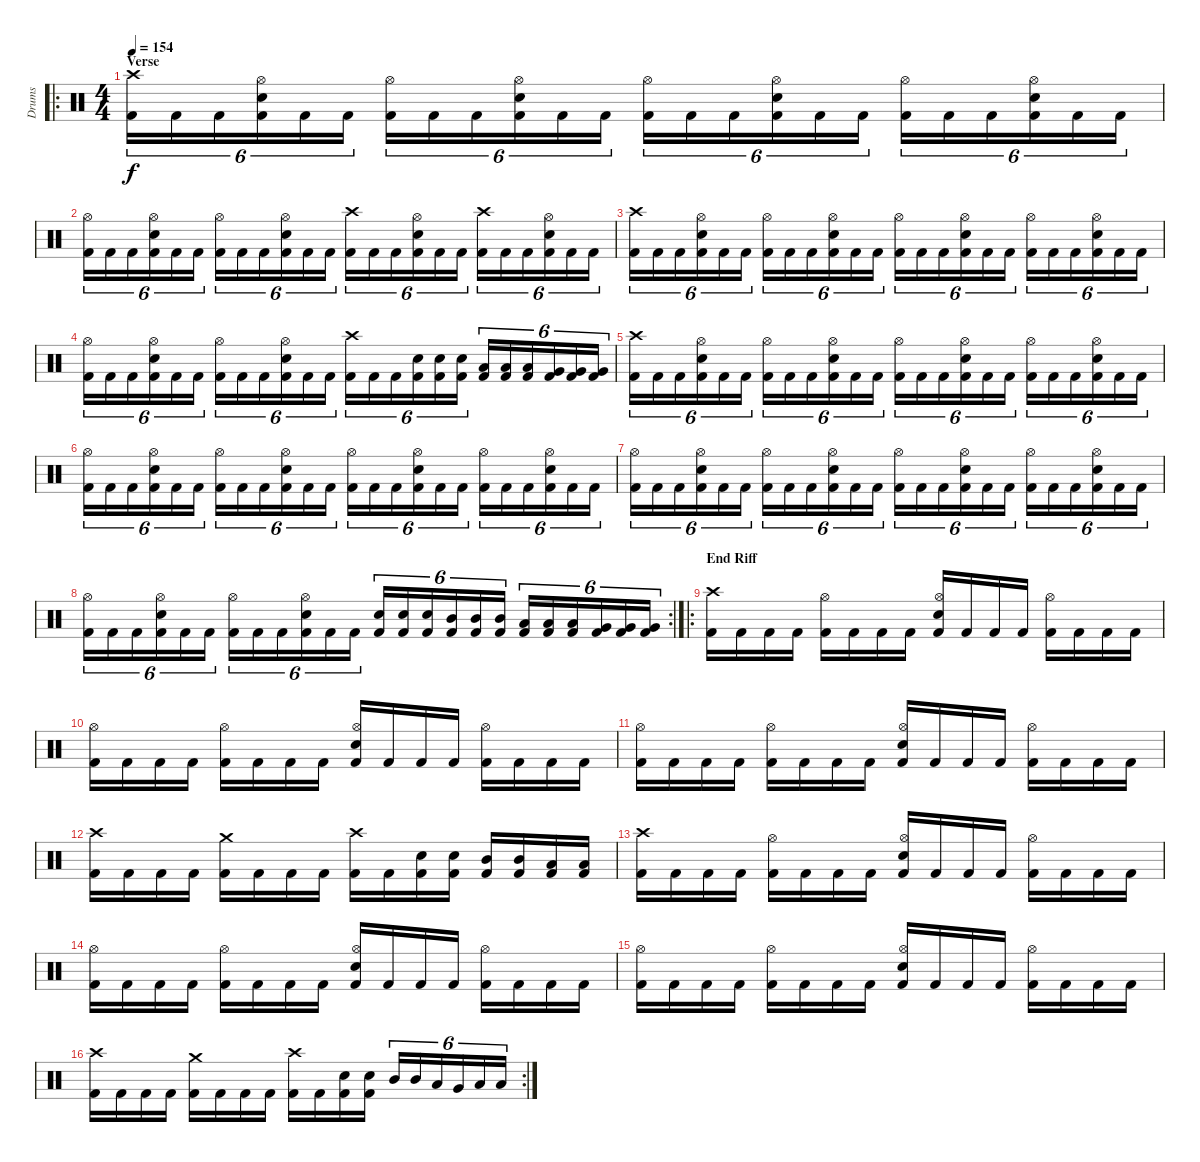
\track ("Drums" "Drums") {instrument percussion}
\staff {score}
\articulation defaults
\ro
\ts (4 4)
\section ("" "Verse")
\tempo 154
\clef neutral
\ks c
("Crash high (hit)" "Kick (hit) 2").16{tu (6 4) dy f} "Kick (hit) 2".16{tu (6 4)} "Kick (hit) 2".16{tu (6 4)} ("Hi-Hat (open)" "Electric Snare (hit)" "Kick (hit) 2").16{tu (6 4)} "Kick (hit) 2".16{tu (6 4)} "Kick (hit) 2".16{tu (6 4)} ("Hi-Hat (open)" "Kick (hit) 2").16{tu (6 4)} "Kick (hit) 2".16{tu (6 4)} "Kick (hit) 2".16{tu (6 4)} ("Hi-Hat (open)" "Electric Snare (hit)" "Kick (hit) 2").16{tu (6 4)} "Kick (hit) 2".16{tu (6 4)} "Kick (hit) 2".16{tu (6 4)} ("Hi-Hat (open)" "Kick (hit) 2").16{tu (6 4)} "Kick (hit) 2".16{tu (6 4)} "Kick (hit) 2".16{tu (6 4)} ("Hi-Hat (open)" "Electric Snare (hit)" "Kick (hit) 2").16{tu (6 4)} "Kick (hit) 2".16{tu (6 4)} "Kick (hit) 2".16{tu (6 4)} ("Hi-Hat (open)" "Kick (hit) 2").16{tu (6 4)} "Kick (hit) 2".16{tu (6 4)} "Kick (hit) 2".16{tu (6 4)} ("Hi-Hat (open)" "Electric Snare (hit)" "Kick (hit) 2").16{tu (6 4)} "Kick (hit) 2".16{tu (6 4)} "Kick (hit) 2".16{tu (6 4)} |
("Hi-Hat (open)" "Kick (hit) 2").16{tu (6 4)} "Kick (hit) 2".16{tu (6 4)} "Kick (hit) 2".16{tu (6 4)} ("Hi-Hat (open)" "Electric Snare (hit)" "Kick (hit) 2").16{tu (6 4)} "Kick (hit) 2".16{tu (6 4)} "Kick (hit) 2".16{tu (6 4)} ("Hi-Hat (open)" "Kick (hit) 2").16{tu (6 4)} "Kick (hit) 2".16{tu (6 4)} "Kick (hit) 2".16{tu (6 4)} ("Hi-Hat (open)" "Electric Snare (hit)" "Kick (hit) 2").16{tu (6 4)} "Kick (hit) 2".16{tu (6 4)} "Kick (hit) 2".16{tu (6 4)} ("Crash high (hit)" "Kick (hit) 2").16{tu (6 4)} "Kick (hit) 2".16{tu (6 4)} "Kick (hit) 2".16{tu (6 4)} ("Hi-Hat (open)" "Electric Snare (hit)" "Kick (hit) 2").16{tu (6 4)} "Kick (hit) 2".16{tu (6 4)} "Kick (hit) 2".16{tu (6 4)} ("Crash high (hit)" "Kick (hit) 2").16{tu (6 4)} "Kick (hit) 2".16{tu (6 4)} "Kick (hit) 2".16{tu (6 4)} ("Hi-Hat (open)" "Electric Snare (hit)" "Kick (hit) 2").16{tu (6 4)} "Kick (hit) 2".16{tu (6 4)} "Kick (hit) 2".16{tu (6 4)} |
("Crash high (hit)" "Kick (hit) 2").16{tu (6 4)} "Kick (hit) 2".16{tu (6 4)} "Kick (hit) 2".16{tu (6 4)} ("Hi-Hat (open)" "Electric Snare (hit)" "Kick (hit) 2").16{tu (6 4)} "Kick (hit) 2".16{tu (6 4)} "Kick (hit) 2".16{tu (6 4)} ("Hi-Hat (open)" "Kick (hit) 2").16{tu (6 4)} "Kick (hit) 2".16{tu (6 4)} "Kick (hit) 2".16{tu (6 4)} ("Hi-Hat (open)" "Electric Snare (hit)" "Kick (hit) 2").16{tu (6 4)} "Kick (hit) 2".16{tu (6 4)} "Kick (hit) 2".16{tu (6 4)} ("Hi-Hat (open)" "Kick (hit) 2").16{tu (6 4)} "Kick (hit) 2".16{tu (6 4)} "Kick (hit) 2".16{tu (6 4)} ("Hi-Hat (open)" "Electric Snare (hit)" "Kick (hit) 2").16{tu (6 4)} "Kick (hit) 2".16{tu (6 4)} "Kick (hit) 2".16{tu (6 4)} ("Hi-Hat (open)" "Kick (hit) 2").16{tu (6 4)} "Kick (hit) 2".16{tu (6 4)} "Kick (hit) 2".16{tu (6 4)} ("Hi-Hat (open)" "Electric Snare (hit)" "Kick (hit) 2").16{tu (6 4)} "Kick (hit) 2".16{tu (6 4)} "Kick (hit) 2".16{tu (6 4)} |
("Hi-Hat (open)" "Kick (hit) 2").16{tu (6 4)} "Kick (hit) 2".16{tu (6 4)} "Kick (hit) 2".16{tu (6 4)} ("Hi-Hat (open)" "Electric Snare (hit)" "Kick (hit) 2").16{tu (6 4)} "Kick (hit) 2".16{tu (6 4)} "Kick (hit) 2".16{tu (6 4)} ("Hi-Hat (open)" "Kick (hit) 2").16{tu (6 4)} "Kick (hit) 2".16{tu (6 4)} "Kick (hit) 2".16{tu (6 4)} ("Hi-Hat (open)" "Electric Snare (hit)" "Kick (hit) 2").16{tu (6 4)} "Kick (hit) 2".16{tu (6 4)} "Kick (hit) 2".16{tu (6 4)} ("Crash high (hit)" "Kick (hit) 2").16{tu (6 4)} "Kick (hit) 2".16{tu (6 4)} "Kick (hit) 2".16{tu (6 4)} ("Electric Snare (hit)" "Kick (hit) 2").16{tu (6 4)} ("Electric Snare (hit)" "Kick (hit) 2").16{tu (6 4)} ("Electric Snare (hit)" "Kick (hit) 2").16{tu (6 4)} ("Low Tom (hit)" "Kick (hit) 2").16{tu (6 4)} ("Low Tom (hit)" "Kick (hit) 2").16{tu (6 4)} ("Low Tom (hit)" "Kick (hit) 2").16{tu (6 4)} ("Very Low Tom (hit)" "Kick (hit) 2").16{tu (6 4)} ("Very Low Tom (hit)" "Kick (hit) 2").16{tu (6 4)} ("Very Low Tom (hit)" "Kick (hit) 2").16{tu (6 4)} |
("Crash high (hit)" "Kick (hit) 2").16{tu (6 4)} "Kick (hit) 2".16{tu (6 4)} "Kick (hit) 2".16{tu (6 4)} ("Hi-Hat (open)" "Electric Snare (hit)" "Kick (hit) 2").16{tu (6 4)} "Kick (hit) 2".16{tu (6 4)} "Kick (hit) 2".16{tu (6 4)} ("Hi-Hat (open)" "Kick (hit) 2").16{tu (6 4)} "Kick (hit) 2".16{tu (6 4)} "Kick (hit) 2".16{tu (6 4)} ("Hi-Hat (open)" "Electric Snare (hit)" "Kick (hit) 2").16{tu (6 4)} "Kick (hit) 2".16{tu (6 4)} "Kick (hit) 2".16{tu (6 4)} ("Hi-Hat (open)" "Kick (hit) 2").16{tu (6 4)} "Kick (hit) 2".16{tu (6 4)} "Kick (hit) 2".16{tu (6 4)} ("Hi-Hat (open)" "Electric Snare (hit)" "Kick (hit) 2").16{tu (6 4)} "Kick (hit) 2".16{tu (6 4)} "Kick (hit) 2".16{tu (6 4)} ("Hi-Hat (open)" "Kick (hit) 2").16{tu (6 4)} "Kick (hit) 2".16{tu (6 4)} "Kick (hit) 2".16{tu (6 4)} ("Hi-Hat (open)" "Electric Snare (hit)" "Kick (hit) 2").16{tu (6 4)} "Kick (hit) 2".16{tu (6 4)} "Kick (hit) 2".16{tu (6 4)} |
("Hi-Hat (open)" "Kick (hit) 2").16{tu (6 4)} "Kick (hit) 2".16{tu (6 4)} "Kick (hit) 2".16{tu (6 4)} ("Hi-Hat (open)" "Electric Snare (hit)" "Kick (hit) 2").16{tu (6 4)} "Kick (hit) 2".16{tu (6 4)} "Kick (hit) 2".16{tu (6 4)} ("Hi-Hat (open)" "Kick (hit) 2").16{tu (6 4)} "Kick (hit) 2".16{tu (6 4)} "Kick (hit) 2".16{tu (6 4)} ("Hi-Hat (open)" "Electric Snare (hit)" "Kick (hit) 2").16{tu (6 4)} "Kick (hit) 2".16{tu (6 4)} "Kick (hit) 2".16{tu (6 4)} ("Hi-Hat (open)" "Kick (hit) 2").16{tu (6 4)} "Kick (hit) 2".16{tu (6 4)} "Kick (hit) 2".16{tu (6 4)} ("Hi-Hat (open)" "Electric Snare (hit)" "Kick (hit) 2").16{tu (6 4)} "Kick (hit) 2".16{tu (6 4)} "Kick (hit) 2".16{tu (6 4)} ("Hi-Hat (open)" "Kick (hit) 2").16{tu (6 4)} "Kick (hit) 2".16{tu (6 4)} "Kick (hit) 2".16{tu (6 4)} ("Hi-Hat (open)" "Electric Snare (hit)" "Kick (hit) 2").16{tu (6 4)} "Kick (hit) 2".16{tu (6 4)} "Kick (hit) 2".16{tu (6 4)} |
("Hi-Hat (open)" "Kick (hit) 2").16{tu (6 4)} "Kick (hit) 2".16{tu (6 4)} "Kick (hit) 2".16{tu (6 4)} ("Hi-Hat (open)" "Electric Snare (hit)" "Kick (hit) 2").16{tu (6 4)} "Kick (hit) 2".16{tu (6 4)} "Kick (hit) 2".16{tu (6 4)} ("Hi-Hat (open)" "Kick (hit) 2").16{tu (6 4)} "Kick (hit) 2".16{tu (6 4)} "Kick (hit) 2".16{tu (6 4)} ("Hi-Hat (open)" "Electric Snare (hit)" "Kick (hit) 2").16{tu (6 4)} "Kick (hit) 2".16{tu (6 4)} "Kick (hit) 2".16{tu (6 4)} ("Hi-Hat (open)" "Kick (hit) 2").16{tu (6 4)} "Kick (hit) 2".16{tu (6 4)} "Kick (hit) 2".16{tu (6 4)} ("Hi-Hat (open)" "Electric Snare (hit)" "Kick (hit) 2").16{tu (6 4)} "Kick (hit) 2".16{tu (6 4)} "Kick (hit) 2".16{tu (6 4)} ("Hi-Hat (open)" "Kick (hit) 2").16{tu (6 4)} "Kick (hit) 2".16{tu (6 4)} "Kick (hit) 2".16{tu (6 4)} ("Hi-Hat (open)" "Electric Snare (hit)" "Kick (hit) 2").16{tu (6 4)} "Kick (hit) 2".16{tu (6 4)} "Kick (hit) 2".16{tu (6 4)} |
\rc 2
("Hi-Hat (open)" "Kick (hit) 2").16{tu (6 4)} "Kick (hit) 2".16{tu (6 4)} "Kick (hit) 2".16{tu (6 4)} ("Hi-Hat (open)" "Electric Snare (hit)" "Kick (hit) 2").16{tu (6 4)} "Kick (hit) 2".16{tu (6 4)} "Kick (hit) 2".16{tu (6 4)} ("Hi-Hat (open)" "Kick (hit) 2").16{tu (6 4)} "Kick (hit) 2".16{tu (6 4)} "Kick (hit) 2".16{tu (6 4)} ("Hi-Hat (open)" "Electric Snare (hit)" "Kick (hit) 2").16{tu (6 4)} "Kick (hit) 2".16{tu (6 4)} "Kick (hit) 2".16{tu (6 4)} ("Electric Snare (hit)" "Kick (hit) 2").16{tu (6 4)} ("Electric Snare (hit)" "Kick (hit) 2").16{tu (6 4)} ("Electric Snare (hit)" "Kick (hit) 2").16{tu (6 4)} ("Mid Tom (hit)" "Kick (hit) 2").16{tu (6 4)} ("Mid Tom (hit)" "Kick (hit) 2").16{tu (6 4)} ("Mid Tom (hit)" "Kick (hit) 2").16{tu (6 4)} ("Low Tom (hit)" "Kick (hit) 2").16{tu (6 4)} ("Low Tom (hit)" "Kick (hit) 2").16{tu (6 4)} ("Low Tom (hit)" "Kick (hit) 2").16{tu (6 4)} ("Very Low Tom (hit)" "Kick (hit) 2").16{tu (6 4)} ("Very Low Tom (hit)" "Kick (hit) 2").16{tu (6 4)} ("Very Low Tom (hit)" "Kick (hit) 2").16{tu (6 4)} |
\ro
\section ("" "End Riff")
("Crash high (hit)" "Kick (hit) 2").16 "Kick (hit) 2".16 "Kick (hit) 2".16 "Kick (hit) 2".16 ("Hi-Hat (open)" "Kick (hit) 2").16 "Kick (hit) 2".16 "Kick (hit) 2".16 "Kick (hit) 2".16 ("Hi-Hat (open)" "Electric Snare (hit)" "Kick (hit) 2").16 "Kick (hit) 2".16 "Kick (hit) 2".16 "Kick (hit) 2".16 ("Hi-Hat (open)" "Kick (hit) 2").16 "Kick (hit) 2".16 "Kick (hit) 2".16 "Kick (hit) 2".16 |
("Hi-Hat (open)" "Kick (hit) 2").16 "Kick (hit) 2".16 "Kick (hit) 2".16 "Kick (hit) 2".16 ("Hi-Hat (open)" "Kick (hit) 2").16 "Kick (hit) 2".16 "Kick (hit) 2".16 "Kick (hit) 2".16 ("Hi-Hat (open)" "Electric Snare (hit)" "Kick (hit) 2").16 "Kick (hit) 2".16 "Kick (hit) 2".16 "Kick (hit) 2".16 ("Hi-Hat (open)" "Kick (hit) 2").16 "Kick (hit) 2".16 "Kick (hit) 2".16 "Kick (hit) 2".16 |
("Hi-Hat (open)" "Kick (hit) 2").16 "Kick (hit) 2".16 "Kick (hit) 2".16 "Kick (hit) 2".16 ("Hi-Hat (open)" "Kick (hit) 2").16 "Kick (hit) 2".16 "Kick (hit) 2".16 "Kick (hit) 2".16 ("Hi-Hat (open)" "Electric Snare (hit)" "Kick (hit) 2").16 "Kick (hit) 2".16 "Kick (hit) 2".16 "Kick (hit) 2".16 ("Hi-Hat (open)" "Kick (hit) 2").16 "Kick (hit) 2".16 "Kick (hit) 2".16 "Kick (hit) 2".16 |
("Crash high (hit)" "Kick (hit) 2").16 "Kick (hit) 2".16 "Kick (hit) 2".16 "Kick (hit) 2".16 ("Crash medium (hit)" "Kick (hit) 2").16 "Kick (hit) 2".16 "Kick (hit) 2".16 "Kick (hit) 2".16 ("Crash high (hit)" "Kick (hit) 2").16 "Kick (hit) 2".16 ("Electric Snare (hit)" "Kick (hit) 2").16 ("Electric Snare (hit)" "Kick (hit) 2").16 ("Mid Tom (hit)" "Kick (hit) 2").16 ("Mid Tom (hit)" "Kick (hit) 2").16 ("Low Tom (hit)" "Kick (hit) 2").16 ("Low Tom (hit)" "Kick (hit) 2").16 |
("Crash high (hit)" "Kick (hit) 2").16 "Kick (hit) 2".16 "Kick (hit) 2".16 "Kick (hit) 2".16 ("Hi-Hat (open)" "Kick (hit) 2").16 "Kick (hit) 2".16 "Kick (hit) 2".16 "Kick (hit) 2".16 ("Hi-Hat (open)" "Electric Snare (hit)" "Kick (hit) 2").16 "Kick (hit) 2".16 "Kick (hit) 2".16 "Kick (hit) 2".16 ("Hi-Hat (open)" "Kick (hit) 2").16 "Kick (hit) 2".16 "Kick (hit) 2".16 "Kick (hit) 2".16 |
("Hi-Hat (open)" "Kick (hit) 2").16 "Kick (hit) 2".16 "Kick (hit) 2".16 "Kick (hit) 2".16 ("Hi-Hat (open)" "Kick (hit) 2").16 "Kick (hit) 2".16 "Kick (hit) 2".16 "Kick (hit) 2".16 ("Hi-Hat (open)" "Electric Snare (hit)" "Kick (hit) 2").16 "Kick (hit) 2".16 "Kick (hit) 2".16 "Kick (hit) 2".16 ("Hi-Hat (open)" "Kick (hit) 2").16 "Kick (hit) 2".16 "Kick (hit) 2".16 "Kick (hit) 2".16 |
("Hi-Hat (open)" "Kick (hit) 2").16 "Kick (hit) 2".16 "Kick (hit) 2".16 "Kick (hit) 2".16 ("Hi-Hat (open)" "Kick (hit) 2").16 "Kick (hit) 2".16 "Kick (hit) 2".16 "Kick (hit) 2".16 ("Hi-Hat (open)" "Electric Snare (hit)" "Kick (hit) 2").16 "Kick (hit) 2".16 "Kick (hit) 2".16 "Kick (hit) 2".16 ("Hi-Hat (open)" "Kick (hit) 2").16 "Kick (hit) 2".16 "Kick (hit) 2".16 "Kick (hit) 2".16 |
\rc 2
("Crash high (hit)" "Kick (hit) 2").16 "Kick (hit) 2".16 "Kick (hit) 2".16 "Kick (hit) 2".16 ("Crash medium (hit)" "Kick (hit) 2").16 "Kick (hit) 2".16 "Kick (hit) 2".16 "Kick (hit) 2".16 ("Crash high (hit)" "Kick (hit) 2").16 "Kick (hit) 2".16 ("Electric Snare (hit)" "Kick (hit) 2").16 ("Electric Snare (hit)" "Kick (hit) 2").16 "Mid Tom (hit)".16{tu (6 4)} "Mid Tom (hit)".16{tu (6 4)} "Low Tom (hit)".16{tu (6 4)} "Very Low Tom (hit)".16{tu (6 4)} "Low Floor Tom (hit)".16{tu (6 4)} "Low Floor Tom (hit)".16{tu (6 4)}
